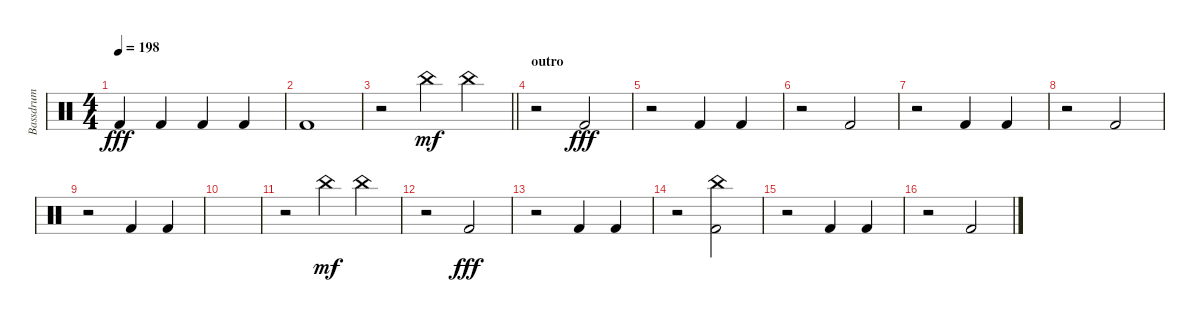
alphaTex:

\track ("Bassdrum" "Bassdrum") {instrument percussion}
\staff {score}
\articulation defaults
\ts (4 4)
\tempo 198
\clef neutral
\ks c "Kick (hit) 2".4{dy fff} "Kick (hit) 2".4 "Kick (hit) 2".4 "Kick (hit) 2".4
|
"Kick (hit) 2".1 |
\barLineRight lightlight
r.2 "China (hit)".4{dy mf} "China (hit)".4 |
\section ("" "outro")
r.2 "Kick (hit) 2".2{dy fff} |
r.2 "Kick (hit) 2".4 "Kick (hit) 2".4 |
r.2 "Kick (hit) 2".2 |
r.2 "Kick (hit) 2".4 "Kick (hit) 2".4 |
r.2 "Kick (hit) 2".2 |
r.2 "Kick (hit) 2".4 "Kick (hit) 2".4 |
|
r.2 "China (hit)".4{dy mf} "China (hit)".4 |
r.2 "Kick (hit) 2".2{dy fff} |
r.2 "Kick (hit) 2".4 "Kick (hit) 2".4 |
r.2 ("China (hit)" "Kick (hit) 2").2 |
r.2 "Kick (hit) 2".4 "Kick (hit) 2".4 |
r.2 "Kick (hit) 2".2
